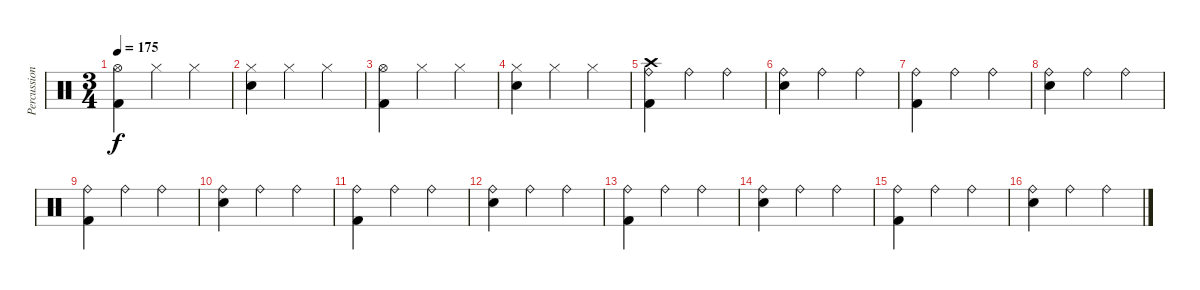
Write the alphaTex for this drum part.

\track ("Percussion" "Percussion") {instrument percussion}
\staff {score}
\articulation defaults
\ts (3 4)
\tempo 175
\clef neutral
\ks c
("Hi-Hat (open)" "Kick (hit) 2").4{dy f} "Hi-Hat (closed)".4 "Hi-Hat (closed)".4 |
("Electric Snare (hit)" "Hi-Hat (closed)").4 "Hi-Hat (closed)".4 "Hi-Hat (closed)".4 |
("Hi-Hat (open)" "Kick (hit) 2").4 "Hi-Hat (closed)".4 "Hi-Hat (closed)".4 |
("Electric Snare (hit)" "Hi-Hat (closed)").4 "Hi-Hat (closed)".4 "Hi-Hat (closed)".4 |
("Crash high (hit)" "Ride (bell)" "Kick (hit) 2").4 "Ride (bell)".4 "Ride (bell)".4 |
("Ride (bell)" "Electric Snare (hit)").4 "Ride (bell)".4 "Ride (bell)".4 |
("Ride (bell)" "Kick (hit) 2").4 "Ride (bell)".4 "Ride (bell)".4 |
("Ride (bell)" "Electric Snare (hit)").4 "Ride (bell)".4 "Ride (bell)".4 |
("Ride (bell)" "Kick (hit) 2").4 "Ride (bell)".4 "Ride (bell)".4 |
("Ride (bell)" "Electric Snare (hit)").4 "Ride (bell)".4 "Ride (bell)".4 |
("Ride (bell)" "Kick (hit) 2").4 "Ride (bell)".4 "Ride (bell)".4 |
("Ride (bell)" "Electric Snare (hit)").4 "Ride (bell)".4 "Ride (bell)".4 |
("Ride (bell)" "Kick (hit) 2").4 "Ride (bell)".4 "Ride (bell)".4 |
("Ride (bell)" "Electric Snare (hit)").4 "Ride (bell)".4 "Ride (bell)".4 |
("Ride (bell)" "Kick (hit) 2").4 "Ride (bell)".4 "Ride (bell)".4 |
("Ride (bell)" "Electric Snare (hit)").4 "Ride (bell)".4 "Ride (bell)".4
